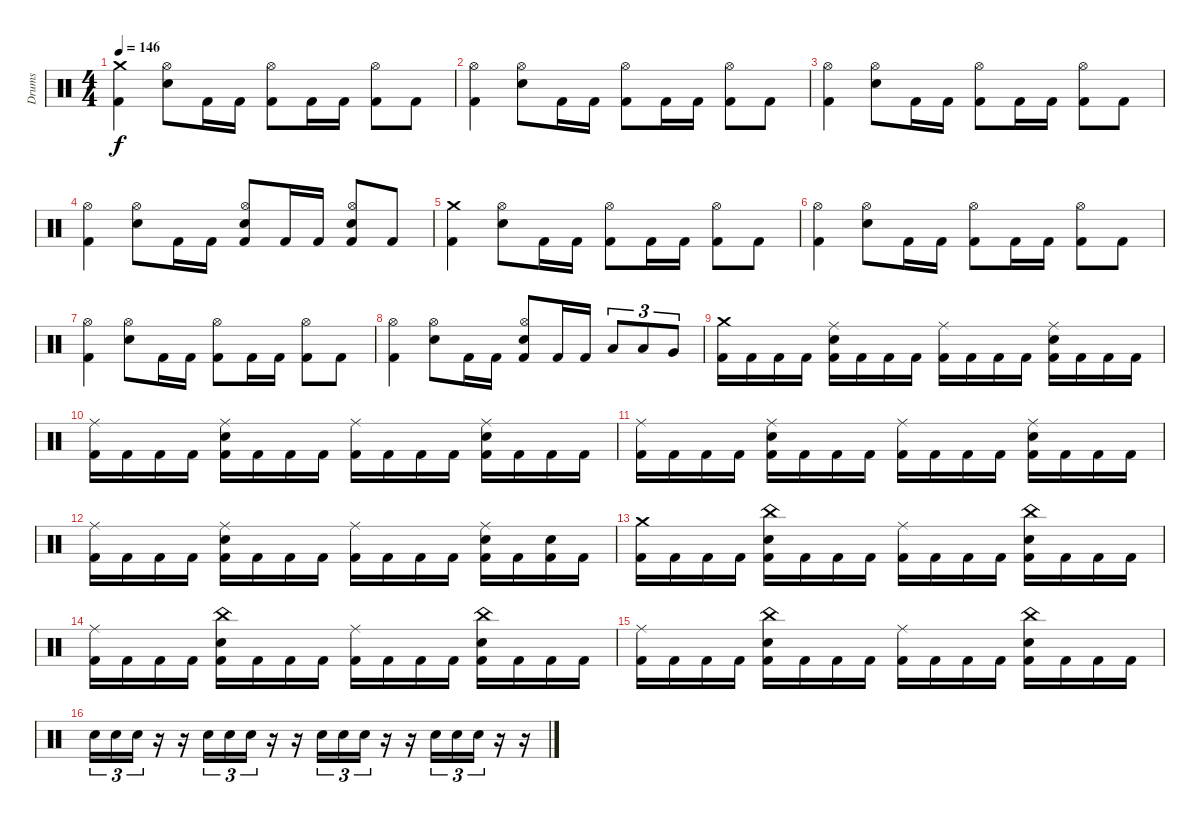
\track ("Drums" "Drums") {instrument percussion}
\staff {score}
\articulation defaults
\ts (4 4)
\tempo 146
\clef neutral
\ks c
("Crash medium (hit)" "Kick (hit) 2").4{dy f} ("Hi-Hat (open)" "Snare (hit) 2").8 "Kick (hit) 2".16 "Kick (hit) 2".16 ("Hi-Hat (open)" "Kick (hit) 2").8 "Kick (hit) 2".16 "Kick (hit) 2".16 ("Hi-Hat (open)" "Kick (hit) 2").8 "Kick (hit) 2".8 |
("Hi-Hat (open)" "Kick (hit) 2").4 ("Hi-Hat (open)" "Snare (hit) 2").8 "Kick (hit) 2".16 "Kick (hit) 2".16 ("Hi-Hat (open)" "Kick (hit) 2").8 "Kick (hit) 2".16 "Kick (hit) 2".16 ("Hi-Hat (open)" "Kick (hit) 2").8 "Kick (hit) 2".8 |
("Hi-Hat (open)" "Kick (hit) 2").4 ("Hi-Hat (open)" "Snare (hit) 2").8 "Kick (hit) 2".16 "Kick (hit) 2".16 ("Hi-Hat (open)" "Kick (hit) 2").8 "Kick (hit) 2".16 "Kick (hit) 2".16 ("Hi-Hat (open)" "Kick (hit) 2").8 "Kick (hit) 2".8 |
("Hi-Hat (open)" "Kick (hit) 2").4 ("Hi-Hat (open)" "Snare (hit) 2").8 "Kick (hit) 2".16 "Kick (hit) 2".16 ("Hi-Hat (open)" "Snare (hit) 2" "Kick (hit) 2").8 "Kick (hit) 2".16 "Kick (hit) 2".16 ("Hi-Hat (open)" "Snare (hit) 2" "Kick (hit) 2").8 "Kick (hit) 2".8 |
("Crash medium (hit)" "Kick (hit) 2").4 ("Hi-Hat (open)" "Snare (hit) 2").8 "Kick (hit) 2".16 "Kick (hit) 2".16 ("Hi-Hat (open)" "Kick (hit) 2").8 "Kick (hit) 2".16 "Kick (hit) 2".16 ("Hi-Hat (open)" "Kick (hit) 2").8 "Kick (hit) 2".8 |
("Hi-Hat (open)" "Kick (hit) 2").4 ("Hi-Hat (open)" "Snare (hit) 2").8 "Kick (hit) 2".16 "Kick (hit) 2".16 ("Hi-Hat (open)" "Kick (hit) 2").8 "Kick (hit) 2".16 "Kick (hit) 2".16 ("Hi-Hat (open)" "Kick (hit) 2").8 "Kick (hit) 2".8 |
("Hi-Hat (open)" "Kick (hit) 2").4 ("Hi-Hat (open)" "Snare (hit) 2").8 "Kick (hit) 2".16 "Kick (hit) 2".16 ("Hi-Hat (open)" "Kick (hit) 2").8 "Kick (hit) 2".16 "Kick (hit) 2".16 ("Hi-Hat (open)" "Kick (hit) 2").8 "Kick (hit) 2".8 |
("Hi-Hat (open)" "Kick (hit) 2").4 ("Hi-Hat (open)" "Snare (hit) 2").8 "Kick (hit) 2".16 "Kick (hit) 2".16 ("Hi-Hat (open)" "Snare (hit) 2" "Kick (hit) 2").8 "Kick (hit) 2".16 "Kick (hit) 2".16 "Low Tom (hit)".8{tu (3 2)} "Low Tom (hit)".8{tu (3 2)} "Very Low Tom (hit)".8{tu (3 2)} |
("Crash medium (hit)" "Kick (hit) 2").16 "Kick (hit) 2".16 "Kick (hit) 2".16 "Kick (hit) 2".16 ("Ride (middle)" "Snare (hit) 2" "Kick (hit) 2").16 "Kick (hit) 2".16 "Kick (hit) 2".16 "Kick (hit) 2".16 ("Ride (middle)" "Kick (hit) 2").16 "Kick (hit) 2".16 "Kick (hit) 2".16 "Kick (hit) 2".16 ("Ride (middle)" "Snare (hit) 2" "Kick (hit) 2").16 "Kick (hit) 2".16 "Kick (hit) 2".16 "Kick (hit) 2".16 |
("Ride (middle)" "Kick (hit) 2").16 "Kick (hit) 2".16 "Kick (hit) 2".16 "Kick (hit) 2".16 ("Ride (middle)" "Snare (hit) 2" "Kick (hit) 2").16 "Kick (hit) 2".16 "Kick (hit) 2".16 "Kick (hit) 2".16 ("Ride (middle)" "Kick (hit) 2").16 "Kick (hit) 2".16 "Kick (hit) 2".16 "Kick (hit) 2".16 ("Ride (middle)" "Snare (hit) 2" "Kick (hit) 2").16 "Kick (hit) 2".16 "Kick (hit) 2".16 "Kick (hit) 2".16 |
("Ride (middle)" "Kick (hit) 2").16 "Kick (hit) 2".16 "Kick (hit) 2".16 "Kick (hit) 2".16 ("Ride (middle)" "Snare (hit) 2" "Kick (hit) 2").16 "Kick (hit) 2".16 "Kick (hit) 2".16 "Kick (hit) 2".16 ("Ride (middle)" "Kick (hit) 2").16 "Kick (hit) 2".16 "Kick (hit) 2".16 "Kick (hit) 2".16 ("Ride (middle)" "Snare (hit) 2" "Kick (hit) 2").16 "Kick (hit) 2".16 "Kick (hit) 2".16 "Kick (hit) 2".16 |
("Ride (middle)" "Kick (hit) 2").16 "Kick (hit) 2".16 "Kick (hit) 2".16 "Kick (hit) 2".16 ("Ride (middle)" "Snare (hit) 2" "Kick (hit) 2").16 "Kick (hit) 2".16 "Kick (hit) 2".16 "Kick (hit) 2".16 ("Ride (middle)" "Kick (hit) 2").16 "Kick (hit) 2".16 "Kick (hit) 2".16 "Kick (hit) 2".16 ("Ride (middle)" "Snare (hit) 2" "Kick (hit) 2").16 "Kick (hit) 2".16 ("Snare (hit) 2" "Kick (hit) 2").16 "Kick (hit) 2".16 |
("Crash medium (hit)" "Kick (hit) 2").16 "Kick (hit) 2".16 "Kick (hit) 2".16 "Kick (hit) 2".16 ("China (hit)" "Snare (hit) 2" "Kick (hit) 2").16 "Kick (hit) 2".16 "Kick (hit) 2".16 "Kick (hit) 2".16 ("Ride (middle)" "Kick (hit) 2").16 "Kick (hit) 2".16 "Kick (hit) 2".16 "Kick (hit) 2".16 ("China (hit)" "Snare (hit) 2" "Kick (hit) 2").16 "Kick (hit) 2".16 "Kick (hit) 2".16 "Kick (hit) 2".16 |
("Ride (middle)" "Kick (hit) 2").16 "Kick (hit) 2".16 "Kick (hit) 2".16 "Kick (hit) 2".16 ("China (hit)" "Snare (hit) 2" "Kick (hit) 2").16 "Kick (hit) 2".16 "Kick (hit) 2".16 "Kick (hit) 2".16 ("Ride (middle)" "Kick (hit) 2").16 "Kick (hit) 2".16 "Kick (hit) 2".16 "Kick (hit) 2".16 ("China (hit)" "Snare (hit) 2" "Kick (hit) 2").16 "Kick (hit) 2".16 "Kick (hit) 2".16 "Kick (hit) 2".16 |
("Ride (middle)" "Kick (hit) 2").16 "Kick (hit) 2".16 "Kick (hit) 2".16 "Kick (hit) 2".16 ("China (hit)" "Snare (hit) 2" "Kick (hit) 2").16 "Kick (hit) 2".16 "Kick (hit) 2".16 "Kick (hit) 2".16 ("Ride (middle)" "Kick (hit) 2").16 "Kick (hit) 2".16 "Kick (hit) 2".16 "Kick (hit) 2".16 ("China (hit)" "Snare (hit) 2" "Kick (hit) 2").16 "Kick (hit) 2".16 "Kick (hit) 2".16 "Kick (hit) 2".16 |
"Snare (hit) 2".16{tu (3 2)} "Snare (hit) 2".16{tu (3 2)} "Snare (hit) 2".16{tu (3 2)} r.16 r.16 "Snare (hit) 2".16{tu (3 2)} "Snare (hit) 2".16{tu (3 2)} "Snare (hit) 2".16{tu (3 2)} r.16 r.16 "Snare (hit) 2".16{tu (3 2)} "Snare (hit) 2".16{tu (3 2)} "Snare (hit) 2".16{tu (3 2)} r.16 r.16 "Snare (hit) 2".16{tu (3 2)} "Snare (hit) 2".16{tu (3 2)} "Snare (hit) 2".16{tu (3 2)} r.16 r.16
